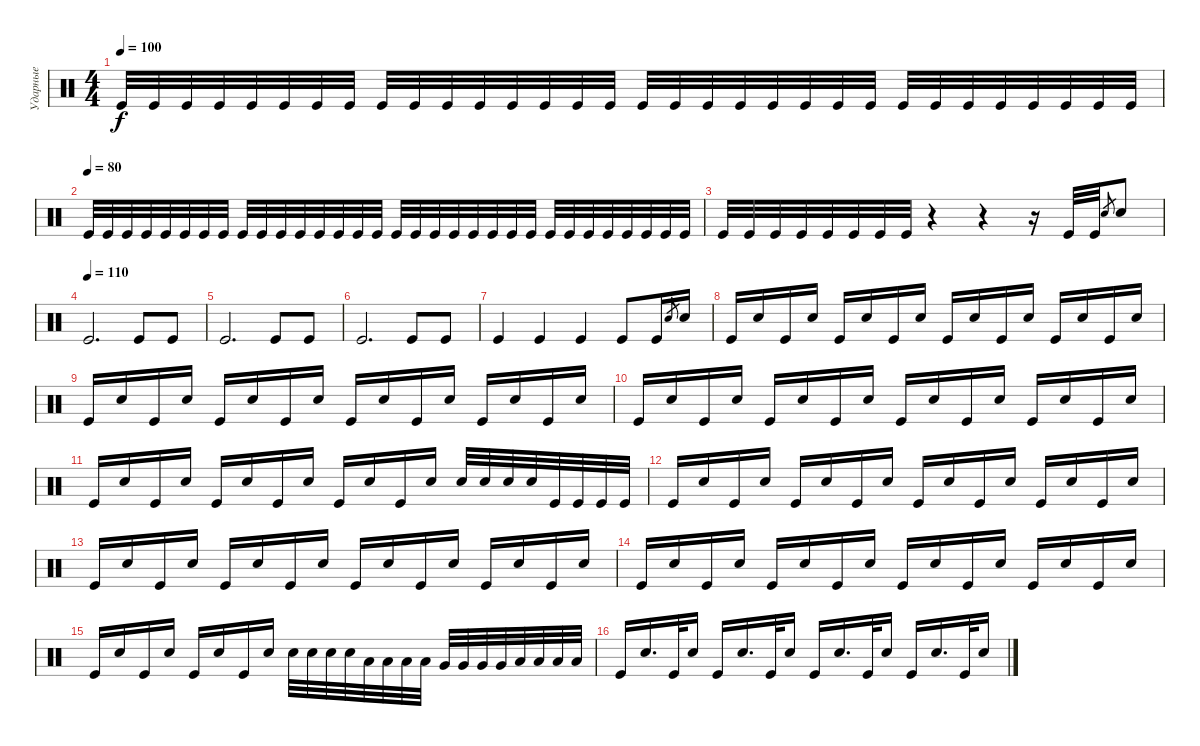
\track ("Ударные" "Ударные") {instrument percussion}
\staff {score}
\articulation defaults
\ts (4 4)
\tempo 100
\clef neutral
\ks c "Kick (hit)".32{dy f} "Kick (hit)".32 "Kick (hit)".32 "Kick (hit)".32 "Kick (hit)".32 "Kick (hit)".32 "Kick (hit)".32 "Kick (hit)".32 "Kick (hit)".32 "Kick (hit)".32 "Kick (hit)".32 "Kick (hit)".32 "Kick (hit)".32 "Kick (hit)".32 "Kick (hit)".32 "Kick (hit)".32 "Kick (hit)".32 "Kick (hit)".32 "Kick (hit)".32 "Kick (hit)".32 "Kick (hit)".32 "Kick (hit)".32 "Kick (hit)".32 "Kick (hit)".32 "Kick (hit)".32 "Kick (hit)".32 "Kick (hit)".32 "Kick (hit)".32 "Kick (hit)".32 "Kick (hit)".32 "Kick (hit)".32 "Kick (hit)".32
|
\tempo (80)
"Kick (hit)".32 "Kick (hit)".32 "Kick (hit)".32 "Kick (hit)".32 "Kick (hit)".32 "Kick (hit)".32 "Kick (hit)".32 "Kick (hit)".32 "Kick (hit)".32 "Kick (hit)".32 "Kick (hit)".32 "Kick (hit)".32 "Kick (hit)".32 "Kick (hit)".32 "Kick (hit)".32 "Kick (hit)".32 "Kick (hit)".32 "Kick (hit)".32 "Kick (hit)".32 "Kick (hit)".32 "Kick (hit)".32 "Kick (hit)".32 "Kick (hit)".32 "Kick (hit)".32 "Kick (hit)".32 "Kick (hit)".32 "Kick (hit)".32 "Kick (hit)".32 "Kick (hit)".32 "Kick (hit)".32 "Kick (hit)".32 "Kick (hit)".32 |
"Kick (hit)".32 "Kick (hit)".32 "Kick (hit)".32 "Kick (hit)".32 "Kick (hit)".32 "Kick (hit)".32 "Kick (hit)".32 "Kick (hit)".32 r.4 r.4 r.16 "Kick (hit)".32 "Kick (hit)".32 "Snare (hit) 2".8{gr} "Snare (hit) 2".8 |
\tempo (110)
"Kick (hit)".2{d} "Kick (hit)".8 "Kick (hit)".8 |
"Kick (hit)".2{d} "Kick (hit)".8 "Kick (hit)".8 |
"Kick (hit)".2{d} "Kick (hit)".8 "Kick (hit)".8 |
"Kick (hit)".4 "Kick (hit)".4 "Kick (hit)".4 "Kick (hit)".8 "Kick (hit)".16 "Snare (hit) 2".8{gr} "Snare (hit) 2".16 |
"Kick (hit)".16 "Snare (hit) 2".16 "Kick (hit)".16 "Snare (hit) 2".16 "Kick (hit)".16 "Snare (hit) 2".16 "Kick (hit)".16 "Snare (hit) 2".16 "Kick (hit)".16 "Snare (hit) 2".16 "Kick (hit)".16 "Snare (hit) 2".16 "Kick (hit)".16 "Snare (hit) 2".16 "Kick (hit)".16 "Snare (hit) 2".16 |
"Kick (hit)".16 "Snare (hit) 2".16 "Kick (hit)".16 "Snare (hit) 2".16 "Kick (hit)".16 "Snare (hit) 2".16 "Kick (hit)".16 "Snare (hit) 2".16 "Kick (hit)".16 "Snare (hit) 2".16 "Kick (hit)".16 "Snare (hit) 2".16 "Kick (hit)".16 "Snare (hit) 2".16 "Kick (hit)".16 "Snare (hit) 2".16 |
"Kick (hit)".16 "Snare (hit) 2".16 "Kick (hit)".16 "Snare (hit) 2".16 "Kick (hit)".16 "Snare (hit) 2".16 "Kick (hit)".16 "Snare (hit) 2".16 "Kick (hit)".16 "Snare (hit) 2".16 "Kick (hit)".16 "Snare (hit) 2".16 "Kick (hit)".16 "Snare (hit) 2".16 "Kick (hit)".16 "Snare (hit) 2".16 |
"Kick (hit)".16 "Snare (hit) 2".16 "Kick (hit)".16 "Snare (hit) 2".16 "Kick (hit)".16 "Snare (hit) 2".16 "Kick (hit)".16 "Snare (hit) 2".16 "Kick (hit)".16 "Snare (hit) 2".16 "Kick (hit)".16 "Snare (hit) 2".16 "Snare (hit) 2".32 "Snare (hit) 2".32 "Snare (hit) 2".32 "Snare (hit) 2".32 "Kick (hit)".32 "Kick (hit)".32 "Kick (hit)".32 "Kick (hit)".32 |
"Kick (hit)".16 "Snare (hit) 2".16 "Kick (hit)".16 "Snare (hit) 2".16 "Kick (hit)".16 "Snare (hit) 2".16 "Kick (hit)".16 "Snare (hit) 2".16 "Kick (hit)".16 "Snare (hit) 2".16 "Kick (hit)".16 "Snare (hit) 2".16 "Kick (hit)".16 "Snare (hit) 2".16 "Kick (hit)".16 "Snare (hit) 2".16 |
"Kick (hit)".16 "Snare (hit) 2".16 "Kick (hit)".16 "Snare (hit) 2".16 "Kick (hit)".16 "Snare (hit) 2".16 "Kick (hit)".16 "Snare (hit) 2".16 "Kick (hit)".16 "Snare (hit) 2".16 "Kick (hit)".16 "Snare (hit) 2".16 "Kick (hit)".16 "Snare (hit) 2".16 "Kick (hit)".16 "Snare (hit) 2".16 |
"Kick (hit)".16 "Snare (hit) 2".16 "Kick (hit)".16 "Snare (hit) 2".16 "Kick (hit)".16 "Snare (hit) 2".16 "Kick (hit)".16 "Snare (hit) 2".16 "Kick (hit)".16 "Snare (hit) 2".16 "Kick (hit)".16 "Snare (hit) 2".16 "Kick (hit)".16 "Snare (hit) 2".16 "Kick (hit)".16 "Snare (hit) 2".16 |
"Kick (hit)".16 "Snare (hit) 2".16 "Kick (hit)".16 "Snare (hit) 2".16 "Kick (hit)".16 "Snare (hit) 2".16 "Kick (hit)".16 "Snare (hit) 2".16 "Snare (hit) 2".32 "Snare (hit) 2".32 "Snare (hit) 2".32 "Snare (hit) 2".32 "Low Tom (hit)".32 "Low Tom (hit)".32 "Low Tom (hit)".32 "Low Tom (hit)".32 "Very Low Tom (hit)".32 "Very Low Tom (hit)".32 "Very Low Tom (hit)".32 "Very Low Tom (hit)".32 "Low Floor Tom (hit)".32 "Low Floor Tom (hit)".32 "Low Floor Tom (hit)".32 "Low Floor Tom (hit)".32 |
"Kick (hit)".16 "Snare (hit) 2".16{d} "Kick (hit)".32 "Snare (hit) 2".16 "Kick (hit)".16 "Snare (hit) 2".16{d} "Kick (hit)".32 "Snare (hit) 2".16 "Kick (hit)".16 "Snare (hit) 2".16{d} "Kick (hit)".32 "Snare (hit) 2".16 "Kick (hit)".16 "Snare (hit) 2".16{d} "Kick (hit)".32 "Snare (hit) 2".16
